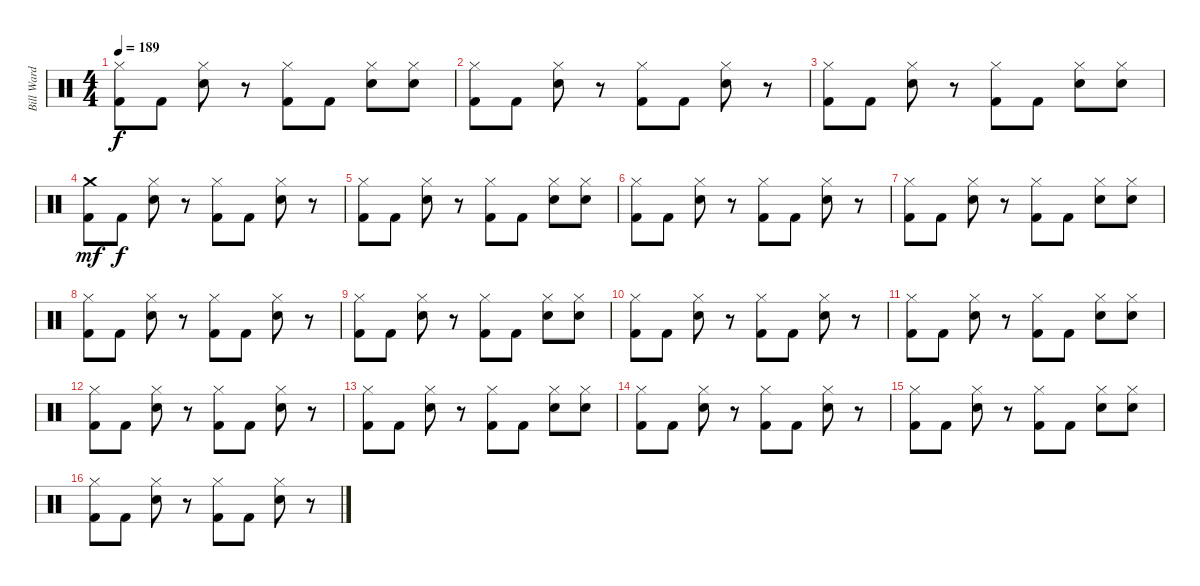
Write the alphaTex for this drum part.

\track ("Bill Ward" "Bill Ward") {instrument percussion}
\staff {score}
\articulation defaults
\ts (4 4)
\tempo 189
\clef neutral
\ks c
("Hi-Hat (closed)" "Kick (hit) 2").8{dy f} "Kick (hit) 2".8 ("Hi-Hat (closed)" "Electric Snare (hit)").8 r.8 ("Kick (hit) 2" "Hi-Hat (closed)").8 "Kick (hit) 2".8 ("Hi-Hat (closed)" "Electric Snare (hit)").8 ("Hi-Hat (closed)" "Electric Snare (hit)").8 |
("Hi-Hat (closed)" "Kick (hit) 2").8 "Kick (hit) 2".8 ("Hi-Hat (closed)" "Electric Snare (hit)").8 r.8 ("Hi-Hat (closed)" "Kick (hit) 2").8 "Kick (hit) 2".8 ("Hi-Hat (closed)" "Electric Snare (hit)").8 r.8 |
("Hi-Hat (closed)" "Kick (hit) 2").8 "Kick (hit) 2".8 ("Hi-Hat (closed)" "Electric Snare (hit)").8 r.8 ("Hi-Hat (closed)" "Kick (hit) 2").8 "Kick (hit) 2".8 ("Hi-Hat (closed)" "Electric Snare (hit)").8 ("Electric Snare (hit)" "Hi-Hat (closed)").8 |
("Kick (hit) 2" "Crash medium (hit)").8{dy mf} "Kick (hit) 2".8{dy f} ("Hi-Hat (closed)" "Electric Snare (hit)").8 r.8 ("Hi-Hat (closed)" "Kick (hit) 2").8 "Kick (hit) 2".8 ("Hi-Hat (closed)" "Electric Snare (hit)").8 r.8 |
("Kick (hit) 2" "Hi-Hat (closed)").8 "Kick (hit) 2".8 ("Electric Snare (hit)" "Hi-Hat (closed)").8 r.8 ("Hi-Hat (closed)" "Kick (hit) 2").8 "Kick (hit) 2".8 ("Electric Snare (hit)" "Hi-Hat (closed)").8 ("Hi-Hat (closed)" "Electric Snare (hit)").8 |
("Hi-Hat (closed)" "Kick (hit) 2").8 "Kick (hit) 2".8 ("Hi-Hat (closed)" "Electric Snare (hit)").8 r.8 ("Hi-Hat (closed)" "Kick (hit) 2").8 "Kick (hit) 2".8 ("Hi-Hat (closed)" "Electric Snare (hit)").8 r.8 |
("Hi-Hat (closed)" "Kick (hit) 2").8 "Kick (hit) 2".8 ("Hi-Hat (closed)" "Electric Snare (hit)").8 r.8 ("Hi-Hat (closed)" "Kick (hit) 2").8 "Kick (hit) 2".8 ("Hi-Hat (closed)" "Electric Snare (hit)").8 ("Hi-Hat (closed)" "Electric Snare (hit)").8 |
("Hi-Hat (closed)" "Kick (hit) 2").8 "Kick (hit) 2".8 ("Electric Snare (hit)" "Hi-Hat (closed)").8 r.8 ("Hi-Hat (closed)" "Kick (hit) 2").8 "Kick (hit) 2".8 ("Electric Snare (hit)" "Hi-Hat (closed)").8 r.8 |
("Kick (hit) 2" "Hi-Hat (closed)").8 "Kick (hit) 2".8 ("Electric Snare (hit)" "Hi-Hat (closed)").8 r.8 ("Kick (hit) 2" "Hi-Hat (closed)").8 "Kick (hit) 2".8 ("Electric Snare (hit)" "Hi-Hat (closed)").8 ("Electric Snare (hit)" "Hi-Hat (closed)").8 |
("Hi-Hat (closed)" "Kick (hit) 2").8 "Kick (hit) 2".8 ("Electric Snare (hit)" "Hi-Hat (closed)").8 r.8 ("Kick (hit) 2" "Hi-Hat (closed)").8 "Kick (hit) 2".8 ("Electric Snare (hit)" "Hi-Hat (closed)").8 r.8 |
("Hi-Hat (closed)" "Kick (hit) 2").8 "Kick (hit) 2".8 ("Hi-Hat (closed)" "Electric Snare (hit)").8 r.8 ("Hi-Hat (closed)" "Kick (hit) 2").8 "Kick (hit) 2".8 ("Electric Snare (hit)" "Hi-Hat (closed)").8 ("Electric Snare (hit)" "Hi-Hat (closed)").8 |
("Hi-Hat (closed)" "Kick (hit) 2").8 "Kick (hit) 2".8 ("Hi-Hat (closed)" "Electric Snare (hit)").8 r.8 ("Kick (hit) 2" "Hi-Hat (closed)").8 "Kick (hit) 2".8 ("Hi-Hat (closed)" "Electric Snare (hit)").8 r.8 |
("Hi-Hat (closed)" "Kick (hit) 2").8 "Kick (hit) 2".8 ("Hi-Hat (closed)" "Electric Snare (hit)").8 r.8 ("Kick (hit) 2" "Hi-Hat (closed)").8 "Kick (hit) 2".8 ("Hi-Hat (closed)" "Electric Snare (hit)").8 ("Hi-Hat (closed)" "Electric Snare (hit)").8 |
("Kick (hit) 2" "Hi-Hat (closed)").8 "Kick (hit) 2".8 ("Hi-Hat (closed)" "Electric Snare (hit)").8 r.8 ("Kick (hit) 2" "Hi-Hat (closed)").8 "Kick (hit) 2".8 ("Hi-Hat (closed)" "Electric Snare (hit)").8 r.8 |
("Kick (hit) 2" "Hi-Hat (closed)").8 "Kick (hit) 2".8 ("Electric Snare (hit)" "Hi-Hat (closed)").8 r.8 ("Hi-Hat (closed)" "Kick (hit) 2").8 "Kick (hit) 2".8 ("Hi-Hat (closed)" "Electric Snare (hit)").8 ("Hi-Hat (closed)" "Electric Snare (hit)").8 |
("Hi-Hat (closed)" "Kick (hit) 2").8 "Kick (hit) 2".8 ("Hi-Hat (closed)" "Electric Snare (hit)").8 r.8 ("Hi-Hat (closed)" "Kick (hit) 2").8 "Kick (hit) 2".8 ("Electric Snare (hit)" "Hi-Hat (closed)").8 r.8
